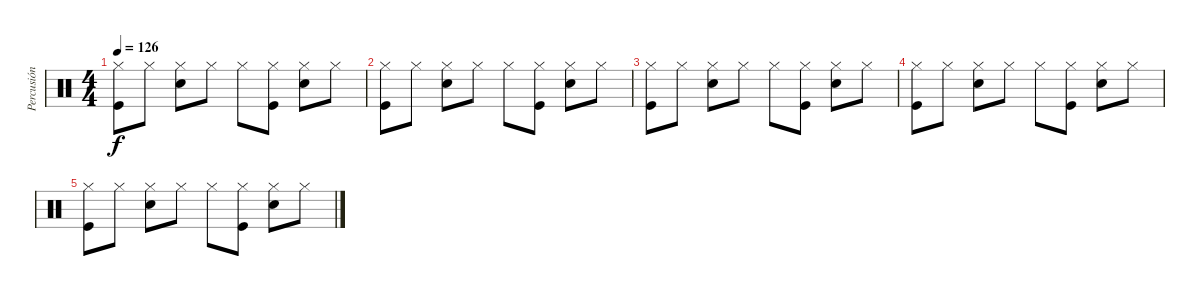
\track ("Percusión" "Percusión") {instrument percussion}
\staff {score}
\articulation defaults
\ts (4 4)
\tempo 126
\clef neutral
\ks c
("Hi-Hat (closed)" "Kick (hit)").8{dy f} "Hi-Hat (closed)".8 ("Hi-Hat (closed)" "Snare (hit) 2").8 "Hi-Hat (closed)".8 "Hi-Hat (closed)".8 ("Hi-Hat (closed)" "Kick (hit)").8 ("Hi-Hat (closed)" "Snare (hit) 2").8 "Hi-Hat (closed)".8 |
("Hi-Hat (closed)" "Kick (hit)").8 "Hi-Hat (closed)".8 ("Hi-Hat (closed)" "Snare (hit) 2").8 "Hi-Hat (closed)".8 "Hi-Hat (closed)".8 ("Hi-Hat (closed)" "Kick (hit)").8 ("Hi-Hat (closed)" "Snare (hit) 2").8 "Hi-Hat (closed)".8 |
("Hi-Hat (closed)" "Kick (hit)").8 "Hi-Hat (closed)".8 ("Hi-Hat (closed)" "Snare (hit) 2").8 "Hi-Hat (closed)".8 "Hi-Hat (closed)".8 ("Hi-Hat (closed)" "Kick (hit)").8 ("Hi-Hat (closed)" "Snare (hit) 2").8 "Hi-Hat (closed)".8 |
("Hi-Hat (closed)" "Kick (hit)").8 "Hi-Hat (closed)".8 ("Hi-Hat (closed)" "Snare (hit) 2").8 "Hi-Hat (closed)".8 "Hi-Hat (closed)".8 ("Hi-Hat (closed)" "Kick (hit)").8 ("Hi-Hat (closed)" "Snare (hit) 2").8 "Hi-Hat (closed)".8 |
("Hi-Hat (closed)" "Kick (hit)").8 "Hi-Hat (closed)".8 ("Hi-Hat (closed)" "Snare (hit) 2").8 "Hi-Hat (closed)".8 "Hi-Hat (closed)".8 ("Hi-Hat (closed)" "Kick (hit)").8 ("Hi-Hat (closed)" "Snare (hit) 2").8 "Hi-Hat (closed)".8
